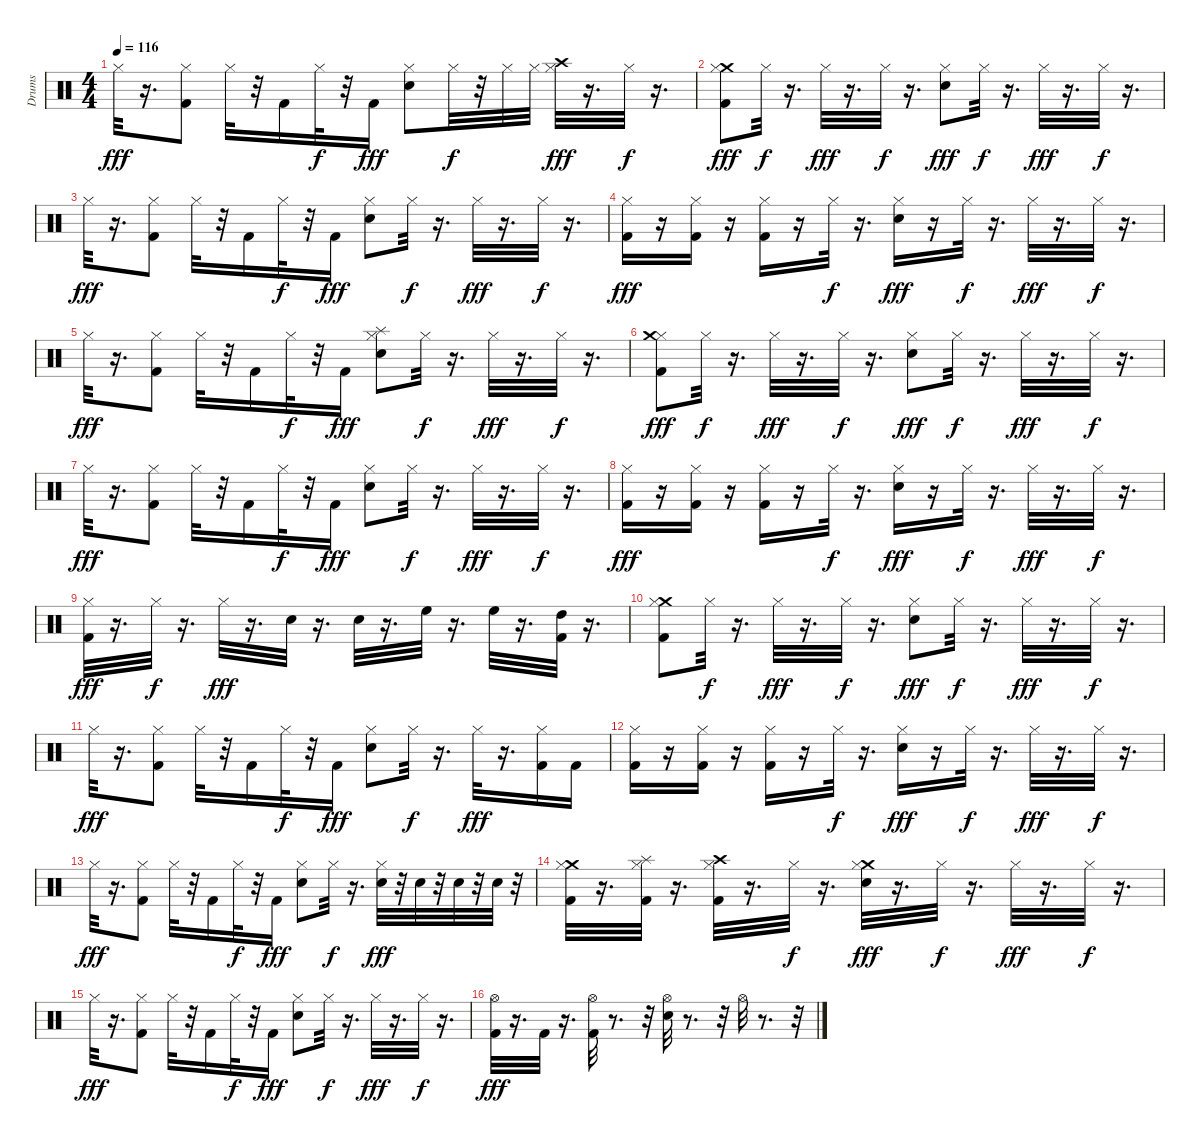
\track ("Drums" "Drums") {instrument percussion}
\staff {score}
\articulation defaults
\ts (4 4)
\tempo 116
\clef neutral
\ks c "Hi-Hat (closed)".32{dy fff}
r.16{d} ("Hi-Hat (closed)" "Kick (hit) 2").8 "Hi-Hat (closed)".32 r.32 "Kick (hit) 2".16 "Hi-Hat (closed)".32{dy f} r.32 "Kick (hit) 2".16{dy fff} ("Hi-Hat (closed)" "Snare (hit) 2").8 "Hi-Hat (closed)".32{dy f} r.32 "Hi-Hat (closed)".32 "Hi-Hat (closed)".32 ("Hi-Hat (closed)" "Crash high (hit)").32{dy fff} r.16{d} "Hi-Hat (closed)".32{dy f} r.16{d} |
("Kick (hit) 2" "Crash medium (hit)" "Hi-Hat (closed)").8{dy fff} "Hi-Hat (closed)".32{dy f} r.16{d} "Hi-Hat (closed)".32{dy fff} r.16{d} "Hi-Hat (closed)".32{dy f} r.16{d} ("Hi-Hat (closed)" "Snare (hit) 2").8{dy fff} "Hi-Hat (closed)".32{dy f} r.16{d} "Hi-Hat (closed)".32{dy fff} r.16{d} "Hi-Hat (closed)".32{dy f} r.16{d} |
"Hi-Hat (closed)".32{dy fff} r.16{d} ("Hi-Hat (closed)" "Kick (hit) 2").8 "Hi-Hat (closed)".32 r.32 "Kick (hit) 2".16 "Hi-Hat (closed)".32{dy f} r.32 "Kick (hit) 2".16{dy fff} ("Hi-Hat (closed)" "Snare (hit) 2").8 "Hi-Hat (closed)".32{dy f} r.16{d} "Hi-Hat (closed)".32{dy fff} r.16{d} "Hi-Hat (closed)".32{dy f} r.16{d} |
("Hi-Hat (closed)" "Kick (hit) 2").16{dy fff} r.16 ("Hi-Hat (closed)" "Kick (hit) 2").16 r.16 ("Hi-Hat (closed)" "Kick (hit) 2").16 r.16 "Hi-Hat (closed)".32{dy f} r.16{d} ("Hi-Hat (closed)" "Snare (hit) 2").16{dy fff} r.16 "Hi-Hat (closed)".32{dy f} r.16{d} "Hi-Hat (closed)".32{dy fff} r.16{d} "Hi-Hat (closed)".32{dy f} r.16{d} |
"Hi-Hat (closed)".32{dy fff} r.16{d} ("Hi-Hat (closed)" "Kick (hit) 2").8 "Hi-Hat (closed)".32 r.32 "Kick (hit) 2".16 "Hi-Hat (closed)".32{dy f} r.32 "Kick (hit) 2".16{dy fff} ("Snare (hit) 2" "Hi-Hat (closed)" "Splash (hit)").8 "Hi-Hat (closed)".32{dy f} r.16{d} "Hi-Hat (closed)".32{dy fff} r.16{d} "Hi-Hat (closed)".32{dy f} r.16{d} |
("Hi-Hat (closed)" "Crash medium (hit)" "Kick (hit) 2").8{dy fff} "Hi-Hat (closed)".32{dy f} r.16{d} "Hi-Hat (closed)".32{dy fff} r.16{d} "Hi-Hat (closed)".32{dy f} r.16{d} ("Hi-Hat (closed)" "Snare (hit) 2").8{dy fff} "Hi-Hat (closed)".32{dy f} r.16{d} "Hi-Hat (closed)".32{dy fff} r.16{d} "Hi-Hat (closed)".32{dy f} r.16{d} |
"Hi-Hat (closed)".32{dy fff} r.16{d} ("Hi-Hat (closed)" "Kick (hit) 2").8 "Hi-Hat (closed)".32 r.32 "Kick (hit) 2".16 "Hi-Hat (closed)".32{dy f} r.32 "Kick (hit) 2".16{dy fff} ("Hi-Hat (closed)" "Snare (hit) 2").8 "Hi-Hat (closed)".32{dy f} r.16{d} "Hi-Hat (closed)".32{dy fff} r.16{d} "Hi-Hat (closed)".32{dy f} r.16{d} |
("Hi-Hat (closed)" "Kick (hit) 2").16{dy fff} r.16 ("Hi-Hat (closed)" "Kick (hit) 2").16 r.16 ("Hi-Hat (closed)" "Kick (hit) 2").16 r.16 "Hi-Hat (closed)".32{dy f} r.16{d} ("Hi-Hat (closed)" "Snare (hit) 2").16{dy fff} r.16 "Hi-Hat (closed)".32{dy f} r.16{d} "Hi-Hat (closed)".32{dy fff} r.16{d} "Hi-Hat (closed)".32{dy f} r.16{d} |
("Kick (hit) 2" "Hi-Hat (closed)").32{dy fff} r.16{d} "Hi-Hat (closed)".32{dy f} r.16{d} "Hi-Hat (closed)".32{dy fff} r.16{d} "Snare (hit) 2".32 r.16{d} "Snare (hit) 2".32 r.16{d} "High Floor Tom (hit)".32 r.16{d} "High Floor Tom (hit)".32 r.16{d} ("High Tom (hit)" "Kick (hit) 2").32 r.16{d} |
("Kick (hit) 2" "Crash medium (hit)" "Hi-Hat (closed)").8 "Hi-Hat (closed)".32{dy f} r.16{d} "Hi-Hat (closed)".32{dy fff} r.16{d} "Hi-Hat (closed)".32{dy f} r.16{d} ("Hi-Hat (closed)" "Snare (hit) 2").8{dy fff} "Hi-Hat (closed)".32{dy f} r.16{d} "Hi-Hat (closed)".32{dy fff} r.16{d} "Hi-Hat (closed)".32{dy f} r.16{d} |
"Hi-Hat (closed)".32{dy fff} r.16{d} ("Hi-Hat (closed)" "Kick (hit) 2").8 "Hi-Hat (closed)".32 r.32 "Kick (hit) 2".16 "Hi-Hat (closed)".32{dy f} r.32 "Kick (hit) 2".16{dy fff} ("Hi-Hat (closed)" "Snare (hit) 2").8 "Hi-Hat (closed)".32{dy f} r.16{d} "Hi-Hat (closed)".32{dy fff} r.16{d} ("Hi-Hat (closed)" "Kick (hit) 2").16 "Kick (hit) 2".16 |
("Hi-Hat (closed)" "Kick (hit) 2").16 r.16 ("Hi-Hat (closed)" "Kick (hit) 2").16 r.16 ("Hi-Hat (closed)" "Kick (hit) 2").16 r.16 "Hi-Hat (closed)".32{dy f} r.16{d} ("Hi-Hat (closed)" "Snare (hit) 2").16{dy fff} r.16 "Hi-Hat (closed)".32{dy f} r.16{d} "Hi-Hat (closed)".32{dy fff} r.16{d} "Hi-Hat (closed)".32{dy f} r.16{d} |
"Hi-Hat (closed)".32{dy fff} r.16{d} ("Hi-Hat (closed)" "Kick (hit) 2").8 "Hi-Hat (closed)".32 r.32 "Kick (hit) 2".16 "Hi-Hat (closed)".32{dy f} r.32 "Kick (hit) 2".16{dy fff} ("Hi-Hat (closed)" "Snare (hit) 2").8 "Hi-Hat (closed)".32{dy f} r.16{d} ("Snare (hit) 2" "Hi-Hat (closed)").32{dy fff} r.32 "Snare (hit) 2".32 r.32 "Snare (hit) 2".32 r.32 "Snare (hit) 2".32 r.32 |
("Crash medium (hit)" "Kick (hit) 2" "Hi-Hat (closed)").32 r.16{d} ("Hi-Hat (closed)" "Kick (hit) 2" "Splash (hit)").32 r.16{d} ("Kick (hit) 2" "Hi-Hat (closed)" "Crash high (hit)").32 r.16{d} "Hi-Hat (closed)".32{dy f} r.16{d} ("Crash medium (hit)" "Snare (hit) 2" "Hi-Hat (closed)").32{dy fff} r.16{d} "Hi-Hat (closed)".32{dy f} r.16{d} "Hi-Hat (closed)".32{dy fff} r.16{d} "Hi-Hat (closed)".32{dy f} r.16{d} |
"Hi-Hat (closed)".32{dy fff} r.16{d} ("Hi-Hat (closed)" "Kick (hit) 2").8 "Hi-Hat (closed)".32 r.32 "Kick (hit) 2".16 "Hi-Hat (closed)".32{dy f} r.32 "Kick (hit) 2".16{dy fff} ("Hi-Hat (closed)" "Snare (hit) 2").8 "Hi-Hat (closed)".32{dy f} r.16{d} "Hi-Hat (closed)".32{dy fff} r.16{d} "Hi-Hat (closed)".32{dy f} r.16{d} |
("Hi-Hat (open)" "Kick (hit) 2").32{dy fff} r.16{d} "Kick (hit) 2".32 r.16{d} ("Hi-Hat (open)" "Kick (hit) 2").32 r.8{d} r.32 ("Hi-Hat (open)" "Snare (hit) 2").32 r.8{d} r.32 "Hi-Hat (open)".32 r.8{d} r.32
